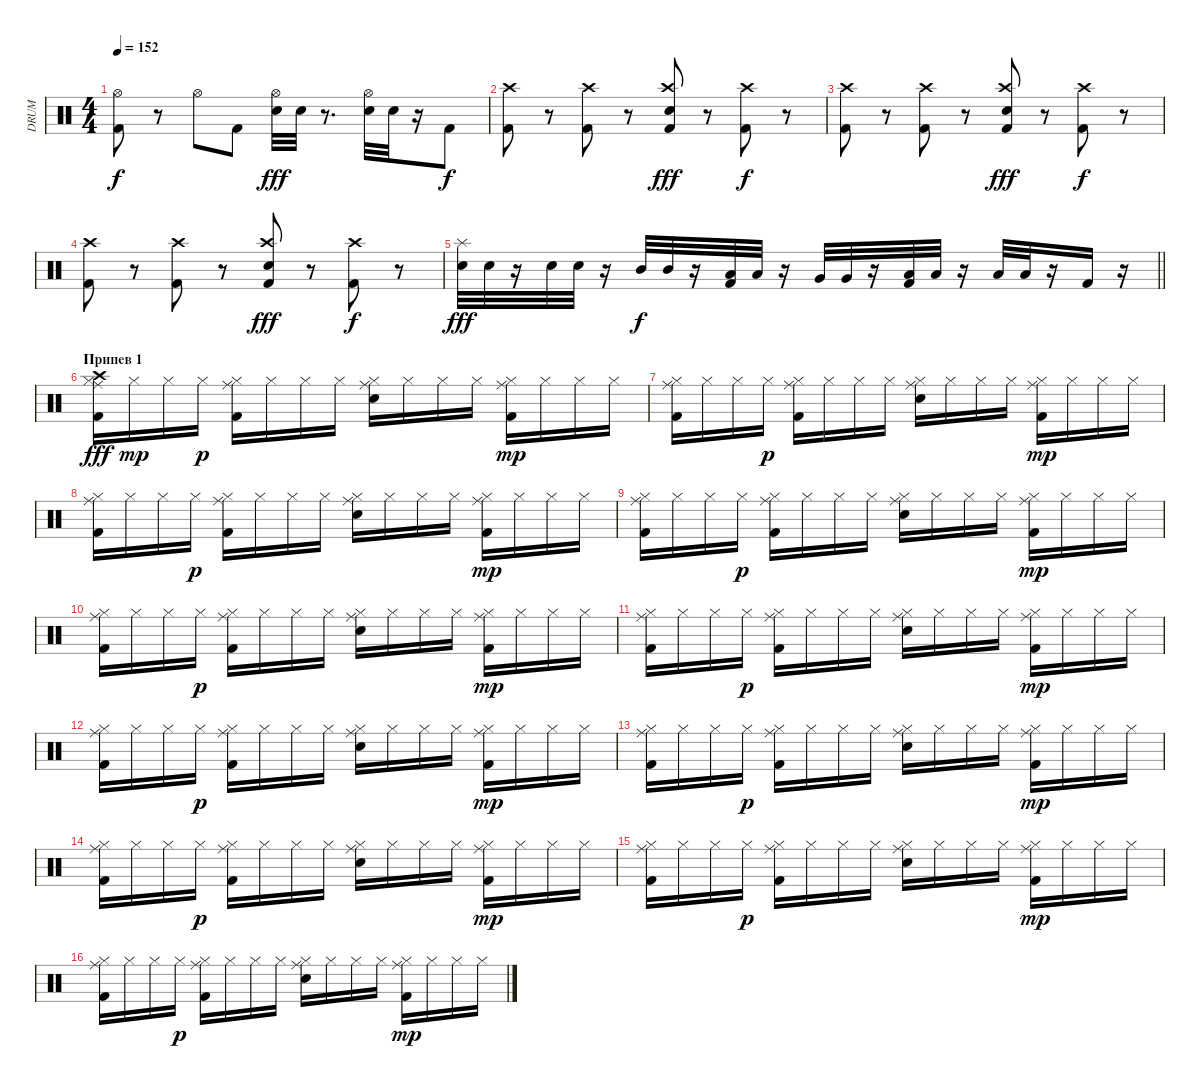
\track ("DRUM" "DRUM") {instrument percussion}
\staff {score}
\articulation defaults
\ts (4 4)
\tempo 152
\clef neutral
\ks c
("Kick (hit) 2" "Hi-Hat (open)").8{dy f} r.8 "Hi-Hat (open)".8 "Kick (hit) 2".8 ("Snare (hit) 2" "Hi-Hat (open)").32{dy fff} "Snare (hit) 2".32 r.8{d} ("Hi-Hat (open)" "Snare (hit) 2").32 "Snare (hit) 2".32 r.16 "Kick (hit) 2".8{dy f} |
("Kick (hit) 2" "Crash high (hit)").8 r.8 ("Kick (hit) 2" "Crash high (hit)").8 r.8 ("Kick (hit) 2" "Crash high (hit)" "Electric Snare (hit)").8{dy fff} r.8 ("Kick (hit) 2" "Crash high (hit)").8{dy f} r.8 |
("Kick (hit) 2" "Crash high (hit)").8 r.8 ("Kick (hit) 2" "Crash high (hit)").8 r.8 ("Kick (hit) 2" "Crash high (hit)" "Electric Snare (hit)").8{dy fff} r.8 ("Kick (hit) 2" "Crash high (hit)").8{dy f} r.8 |
("Kick (hit) 2" "Crash high (hit)").8 r.8 ("Kick (hit) 2" "Crash high (hit)").8 r.8 ("Kick (hit) 2" "Crash high (hit)" "Electric Snare (hit)").8{dy fff} r.8 ("Kick (hit) 2" "Crash high (hit)").8{dy f} r.8 |
\barLineRight lightlight
("Splash (hit)" "Snare (hit) 2").32{dy fff} "Snare (hit) 2".32 r.16 "Snare (hit) 2".32 "Snare (hit) 2".32 r.16 "Mid Tom (hit)".32{dy f} "Mid Tom (hit)".32 r.16 ("Kick (hit) 2" "Low Tom (hit)").32 "Low Tom (hit)".32 r.16 "Very Low Tom (hit)".32 "Very Low Tom (hit)".32 r.16 ("Kick (hit) 2" "Low Floor Tom (hit)").32 "Low Floor Tom (hit)".32 r.16 "Low Floor Tom (hit)".32 "Low Floor Tom (hit)".32 r.16 "Kick (hit) 2".16 r.16 |
\section ("" "Припев 1")
("Ride (middle)" "Hi-Hat (closed)" "Kick (hit) 2" "Crash high (hit)").16{dy fff} "Hi-Hat (closed)".16{dy mp} "Hi-Hat (closed)".16 "Hi-Hat (closed)".16{dy p} ("Ride (middle)" "Hi-Hat (closed)" "Kick (hit) 2").16 "Hi-Hat (closed)".16 "Hi-Hat (closed)".16 "Hi-Hat (closed)".16 ("Ride (middle)" "Hi-Hat (closed)" "Snare (hit) 2").16 "Hi-Hat (closed)".16 "Hi-Hat (closed)".16 "Hi-Hat (closed)".16 ("Ride (middle)" "Hi-Hat (closed)" "Kick (hit) 2").16{dy mp} "Hi-Hat (closed)".16 "Hi-Hat (closed)".16 "Hi-Hat (closed)".16 |
("Ride (middle)" "Hi-Hat (closed)" "Kick (hit) 2").16 "Hi-Hat (closed)".16 "Hi-Hat (closed)".16 "Hi-Hat (closed)".16{dy p} ("Ride (middle)" "Hi-Hat (closed)" "Kick (hit) 2").16 "Hi-Hat (closed)".16 "Hi-Hat (closed)".16 "Hi-Hat (closed)".16 ("Ride (middle)" "Hi-Hat (closed)" "Snare (hit) 2").16 "Hi-Hat (closed)".16 "Hi-Hat (closed)".16 "Hi-Hat (closed)".16 ("Ride (middle)" "Hi-Hat (closed)" "Kick (hit) 2").16{dy mp} "Hi-Hat (closed)".16 "Hi-Hat (closed)".16 "Hi-Hat (closed)".16 |
("Ride (middle)" "Hi-Hat (closed)" "Kick (hit) 2").16 "Hi-Hat (closed)".16 "Hi-Hat (closed)".16 "Hi-Hat (closed)".16{dy p} ("Ride (middle)" "Hi-Hat (closed)" "Kick (hit) 2").16 "Hi-Hat (closed)".16 "Hi-Hat (closed)".16 "Hi-Hat (closed)".16 ("Ride (middle)" "Hi-Hat (closed)" "Snare (hit) 2").16 "Hi-Hat (closed)".16 "Hi-Hat (closed)".16 "Hi-Hat (closed)".16 ("Ride (middle)" "Hi-Hat (closed)" "Kick (hit) 2").16{dy mp} "Hi-Hat (closed)".16 "Hi-Hat (closed)".16 "Hi-Hat (closed)".16 |
("Ride (middle)" "Hi-Hat (closed)" "Kick (hit) 2").16 "Hi-Hat (closed)".16 "Hi-Hat (closed)".16 "Hi-Hat (closed)".16{dy p} ("Ride (middle)" "Hi-Hat (closed)" "Kick (hit) 2").16 "Hi-Hat (closed)".16 "Hi-Hat (closed)".16 "Hi-Hat (closed)".16 ("Ride (middle)" "Hi-Hat (closed)" "Snare (hit) 2").16 "Hi-Hat (closed)".16 "Hi-Hat (closed)".16 "Hi-Hat (closed)".16 ("Ride (middle)" "Hi-Hat (closed)" "Kick (hit) 2").16{dy mp} "Hi-Hat (closed)".16 "Hi-Hat (closed)".16 "Hi-Hat (closed)".16 |
("Ride (middle)" "Hi-Hat (closed)" "Kick (hit) 2").16 "Hi-Hat (closed)".16 "Hi-Hat (closed)".16 "Hi-Hat (closed)".16{dy p} ("Ride (middle)" "Hi-Hat (closed)" "Kick (hit) 2").16 "Hi-Hat (closed)".16 "Hi-Hat (closed)".16 "Hi-Hat (closed)".16 ("Ride (middle)" "Hi-Hat (closed)" "Snare (hit) 2").16 "Hi-Hat (closed)".16 "Hi-Hat (closed)".16 "Hi-Hat (closed)".16 ("Ride (middle)" "Hi-Hat (closed)" "Kick (hit) 2").16{dy mp} "Hi-Hat (closed)".16 "Hi-Hat (closed)".16 "Hi-Hat (closed)".16 |
("Ride (middle)" "Hi-Hat (closed)" "Kick (hit) 2").16 "Hi-Hat (closed)".16 "Hi-Hat (closed)".16 "Hi-Hat (closed)".16{dy p} ("Ride (middle)" "Hi-Hat (closed)" "Kick (hit) 2").16 "Hi-Hat (closed)".16 "Hi-Hat (closed)".16 "Hi-Hat (closed)".16 ("Ride (middle)" "Hi-Hat (closed)" "Snare (hit) 2").16 "Hi-Hat (closed)".16 "Hi-Hat (closed)".16 "Hi-Hat (closed)".16 ("Ride (middle)" "Hi-Hat (closed)" "Kick (hit) 2").16{dy mp} "Hi-Hat (closed)".16 "Hi-Hat (closed)".16 "Hi-Hat (closed)".16 |
("Ride (middle)" "Hi-Hat (closed)" "Kick (hit) 2").16 "Hi-Hat (closed)".16 "Hi-Hat (closed)".16 "Hi-Hat (closed)".16{dy p} ("Ride (middle)" "Hi-Hat (closed)" "Kick (hit) 2").16 "Hi-Hat (closed)".16 "Hi-Hat (closed)".16 "Hi-Hat (closed)".16 ("Ride (middle)" "Hi-Hat (closed)" "Snare (hit) 2").16 "Hi-Hat (closed)".16 "Hi-Hat (closed)".16 "Hi-Hat (closed)".16 ("Ride (middle)" "Hi-Hat (closed)" "Kick (hit) 2").16{dy mp} "Hi-Hat (closed)".16 "Hi-Hat (closed)".16 "Hi-Hat (closed)".16 |
("Ride (middle)" "Hi-Hat (closed)" "Kick (hit) 2").16 "Hi-Hat (closed)".16 "Hi-Hat (closed)".16 "Hi-Hat (closed)".16{dy p} ("Ride (middle)" "Hi-Hat (closed)" "Kick (hit) 2").16 "Hi-Hat (closed)".16 "Hi-Hat (closed)".16 "Hi-Hat (closed)".16 ("Ride (middle)" "Hi-Hat (closed)" "Snare (hit) 2").16 "Hi-Hat (closed)".16 "Hi-Hat (closed)".16 "Hi-Hat (closed)".16 ("Ride (middle)" "Hi-Hat (closed)" "Kick (hit) 2").16{dy mp} "Hi-Hat (closed)".16 "Hi-Hat (closed)".16 "Hi-Hat (closed)".16 |
("Ride (middle)" "Hi-Hat (closed)" "Kick (hit) 2").16 "Hi-Hat (closed)".16 "Hi-Hat (closed)".16 "Hi-Hat (closed)".16{dy p} ("Ride (middle)" "Hi-Hat (closed)" "Kick (hit) 2").16 "Hi-Hat (closed)".16 "Hi-Hat (closed)".16 "Hi-Hat (closed)".16 ("Ride (middle)" "Hi-Hat (closed)" "Snare (hit) 2").16 "Hi-Hat (closed)".16 "Hi-Hat (closed)".16 "Hi-Hat (closed)".16 ("Ride (middle)" "Hi-Hat (closed)" "Kick (hit) 2").16{dy mp} "Hi-Hat (closed)".16 "Hi-Hat (closed)".16 "Hi-Hat (closed)".16 |
("Ride (middle)" "Hi-Hat (closed)" "Kick (hit) 2").16 "Hi-Hat (closed)".16 "Hi-Hat (closed)".16 "Hi-Hat (closed)".16{dy p} ("Ride (middle)" "Hi-Hat (closed)" "Kick (hit) 2").16 "Hi-Hat (closed)".16 "Hi-Hat (closed)".16 "Hi-Hat (closed)".16 ("Ride (middle)" "Hi-Hat (closed)" "Snare (hit) 2").16 "Hi-Hat (closed)".16 "Hi-Hat (closed)".16 "Hi-Hat (closed)".16 ("Ride (middle)" "Hi-Hat (closed)" "Kick (hit) 2").16{dy mp} "Hi-Hat (closed)".16 "Hi-Hat (closed)".16 "Hi-Hat (closed)".16 |
("Ride (middle)" "Hi-Hat (closed)" "Kick (hit) 2").16 "Hi-Hat (closed)".16 "Hi-Hat (closed)".16 "Hi-Hat (closed)".16{dy p} ("Ride (middle)" "Hi-Hat (closed)" "Kick (hit) 2").16 "Hi-Hat (closed)".16 "Hi-Hat (closed)".16 "Hi-Hat (closed)".16 ("Ride (middle)" "Hi-Hat (closed)" "Snare (hit) 2").16 "Hi-Hat (closed)".16 "Hi-Hat (closed)".16 "Hi-Hat (closed)".16 ("Ride (middle)" "Hi-Hat (closed)" "Kick (hit) 2").16{dy mp} "Hi-Hat (closed)".16 "Hi-Hat (closed)".16 "Hi-Hat (closed)".16
